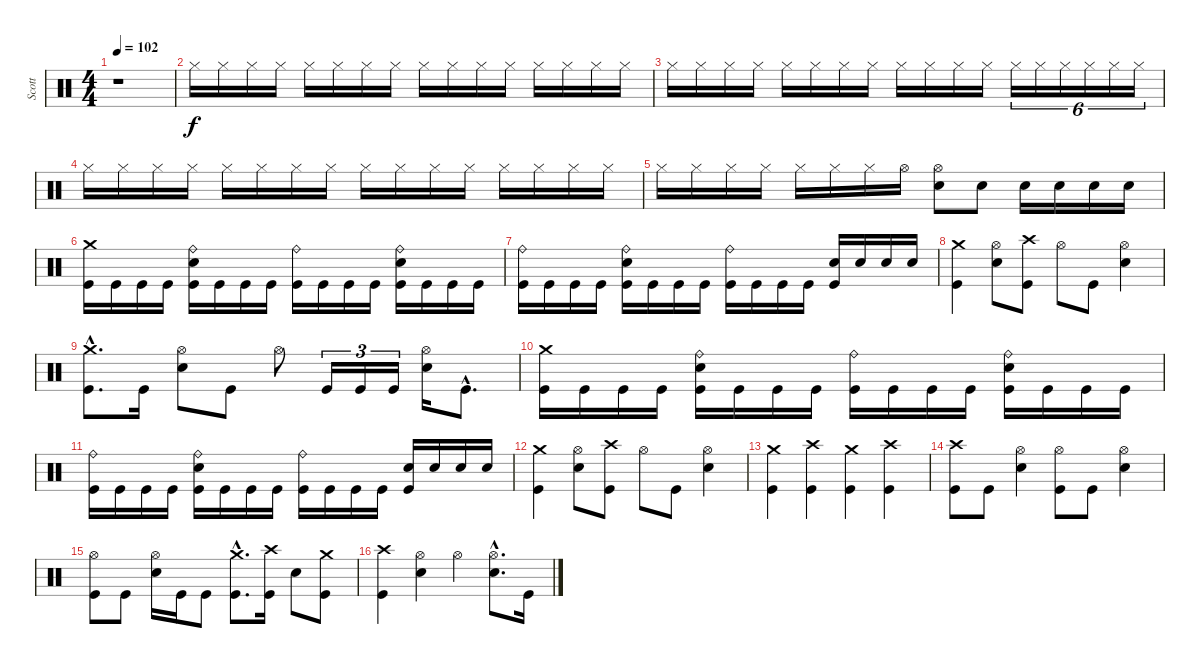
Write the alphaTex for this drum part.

\track ("Scott" "Scott") {instrument percussion}
\staff {score}
\articulation defaults
\ts (4 4)
\tempo 102
\clef neutral
\ks c
r.1{dy f} |
"Hi-Hat (closed)".16 "Hi-Hat (closed)".16 "Hi-Hat (closed)".16 "Hi-Hat (closed)".16 "Hi-Hat (closed)".16 "Hi-Hat (closed)".16 "Hi-Hat (closed)".16 "Hi-Hat (closed)".16 "Hi-Hat (closed)".16 "Hi-Hat (closed)".16 "Hi-Hat (closed)".16 "Hi-Hat (closed)".16 "Hi-Hat (closed)".16 "Hi-Hat (closed)".16 "Hi-Hat (closed)".16 "Hi-Hat (closed)".16 |
"Hi-Hat (closed)".16 "Hi-Hat (closed)".16 "Hi-Hat (closed)".16 "Hi-Hat (closed)".16 "Hi-Hat (closed)".16 "Hi-Hat (closed)".16 "Hi-Hat (closed)".16 "Hi-Hat (closed)".16 "Hi-Hat (closed)".16 "Hi-Hat (closed)".16 "Hi-Hat (closed)".16 "Hi-Hat (closed)".16 "Hi-Hat (closed)".16{tu (6 4)} "Hi-Hat (closed)".16{tu (6 4)} "Hi-Hat (closed)".16{tu (6 4)} "Hi-Hat (closed)".16{tu (6 4)} "Hi-Hat (closed)".16{tu (6 4)} "Hi-Hat (closed)".16{tu (6 4)} |
"Hi-Hat (closed)".16 "Hi-Hat (closed)".16 "Hi-Hat (closed)".16 "Hi-Hat (closed)".16 "Hi-Hat (closed)".16 "Hi-Hat (closed)".16 "Hi-Hat (closed)".16 "Hi-Hat (closed)".16 "Hi-Hat (closed)".16 "Hi-Hat (closed)".16 "Hi-Hat (closed)".16 "Hi-Hat (closed)".16 "Hi-Hat (closed)".16 "Hi-Hat (closed)".16 "Hi-Hat (closed)".16 "Hi-Hat (closed)".16 |
"Hi-Hat (closed)".16 "Hi-Hat (closed)".16 "Hi-Hat (closed)".16 "Hi-Hat (closed)".16 "Hi-Hat (closed)".16 "Hi-Hat (closed)".16 "Hi-Hat (closed)".16 "Hi-Hat (open)".16 ("Snare (hit) 2" "Hi-Hat (open)").8 "Snare (hit) 2".8 "Snare (hit) 2".16 "Snare (hit) 2".16 "Snare (hit) 2".16 "Snare (hit) 2".16 |
("Kick (hit)" "Crash medium (hit)").16 "Kick (hit)".16 "Kick (hit)".16 "Kick (hit)".16 ("Kick (hit)" "Snare (hit) 2" "Ride (bell)").16 "Kick (hit)".16 "Kick (hit)".16 "Kick (hit)".16 ("Kick (hit)" "Ride (bell)").16 "Kick (hit)".16 "Kick (hit)".16 "Kick (hit)".16 ("Kick (hit)" "Snare (hit) 2" "Ride (bell)").16 "Kick (hit)".16 "Kick (hit)".16 "Kick (hit)".16 |
("Kick (hit)" "Ride (bell)").16 "Kick (hit)".16 "Kick (hit)".16 "Kick (hit)".16 ("Kick (hit)" "Snare (hit) 2" "Ride (bell)").16 "Kick (hit)".16 "Kick (hit)".16 "Kick (hit)".16 ("Kick (hit)" "Ride (bell)").16 "Kick (hit)".16 "Kick (hit)".16 "Kick (hit)".16 ("Kick (hit)" "Snare (hit) 2").16 "Snare (hit) 2".16 "Snare (hit) 2".16 "Snare (hit) 2".16 |
("Kick (hit)" "Crash medium (hit)").4 ("Snare (hit) 2" "Hi-Hat (open)").8 ("Kick (hit)" "Crash high (hit)").8 "Hi-Hat (open)".8 "Kick (hit)".8 ("Snare (hit) 2" "Hi-Hat (open)").4 |
("Kick (hit)"{hac} "Crash medium (hit)"{hac}).8{d} "Kick (hit)".16 ("Snare (hit) 2" "Hi-Hat (open)").8 "Kick (hit)".8 "Hi-Hat (open)".8 "Kick (hit)".16{tu (3 2)} "Kick (hit)".16{tu (3 2)} "Kick (hit)".16{tu (3 2)} ("Snare (hit) 2" "Hi-Hat (open)").16 "Kick (hit)"{hac}.8{d} |
("Kick (hit)" "Crash medium (hit)").16 "Kick (hit)".16 "Kick (hit)".16 "Kick (hit)".16 ("Kick (hit)" "Snare (hit) 2" "Ride (bell)").16 "Kick (hit)".16 "Kick (hit)".16 "Kick (hit)".16 ("Kick (hit)" "Ride (bell)").16 "Kick (hit)".16 "Kick (hit)".16 "Kick (hit)".16 ("Kick (hit)" "Snare (hit) 2" "Ride (bell)").16 "Kick (hit)".16 "Kick (hit)".16 "Kick (hit)".16 |
("Kick (hit)" "Ride (bell)").16 "Kick (hit)".16 "Kick (hit)".16 "Kick (hit)".16 ("Kick (hit)" "Snare (hit) 2" "Ride (bell)").16 "Kick (hit)".16 "Kick (hit)".16 "Kick (hit)".16 ("Kick (hit)" "Ride (bell)").16 "Kick (hit)".16 "Kick (hit)".16 "Kick (hit)".16 ("Kick (hit)" "Snare (hit) 2").16 "Snare (hit) 2".16 "Snare (hit) 2".16 "Snare (hit) 2".16 |
("Kick (hit)" "Crash medium (hit)").4 ("Snare (hit) 2" "Hi-Hat (open)").8 ("Kick (hit)" "Crash high (hit)").8 "Hi-Hat (open)".8 "Kick (hit)".8 ("Snare (hit) 2" "Hi-Hat (open)").4 |
("Kick (hit)" "Crash medium (hit)").4 ("Kick (hit)" "Crash high (hit)").4 ("Kick (hit)" "Crash medium (hit)").4 ("Kick (hit)" "Crash high (hit)").4 |
("Kick (hit)" "Crash high (hit)").8 "Kick (hit)".8 ("Snare (hit) 2" "Hi-Hat (open)").4 ("Kick (hit)" "Hi-Hat (open)").8 "Kick (hit)".8 ("Snare (hit) 2" "Hi-Hat (open)").4 |
("Kick (hit)" "Hi-Hat (open)").8 "Kick (hit)".8 ("Snare (hit) 2" "Hi-Hat (open)").16 "Kick (hit)".16 "Kick (hit)".8 ("Kick (hit)"{hac} "Crash medium (hit)"{hac}).8{d} ("Kick (hit)" "Crash high (hit)").16 "Snare (hit) 2".8 ("Kick (hit)" "Crash medium (hit)").8 |
("Kick (hit)" "Crash high (hit)").4 ("Snare (hit) 2" "Hi-Hat (open)").4 "Hi-Hat (open)".4 ("Snare (hit) 2"{hac} "Hi-Hat (open)"{hac}).8{d} "Kick (hit)".16
